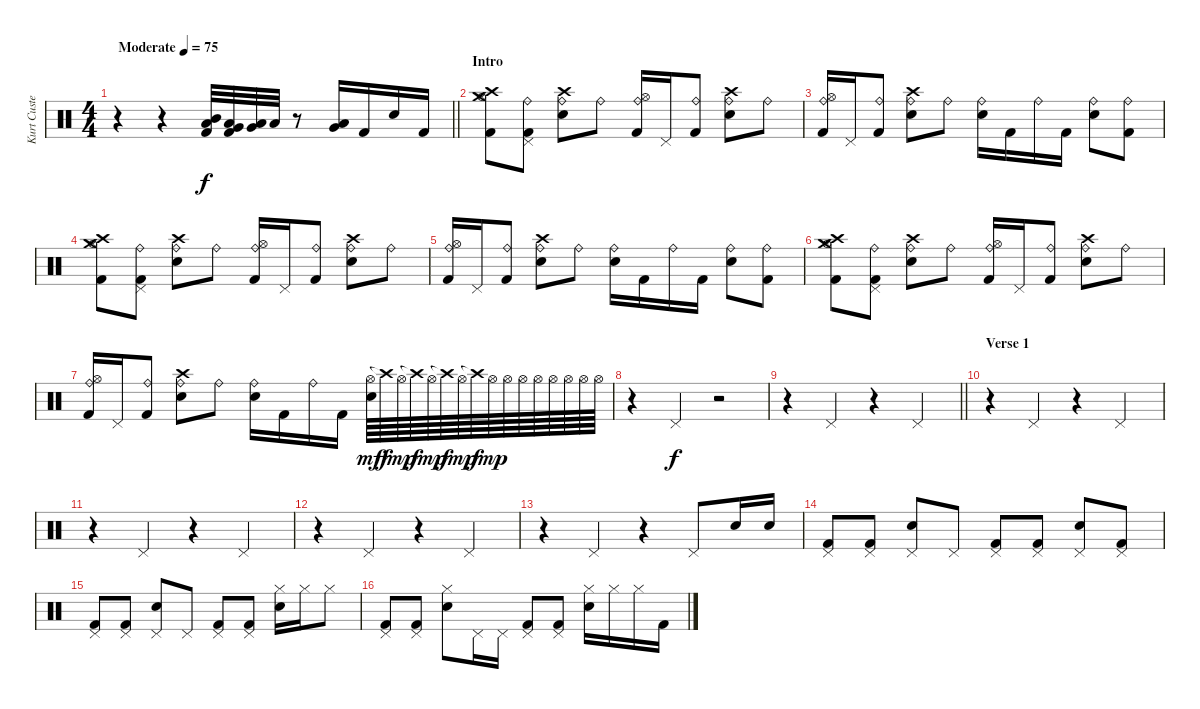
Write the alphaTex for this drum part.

\track ("Kurt Custer - Drums and Percussion" "Kurt Custe") {instrument percussion}
\staff
\articulation defaults
\ts (4 4)
\tempo (75 "Moderate")
\clef neutral
\barLineRight lightlight
\ks c
r.4{dy f} r.4 ("Low Tom (hit)" "Mid Tom (hit)" "Kick (hit) 2").32 ("Very Low Tom (hit)" "Low Tom (hit)" "Kick (hit) 2").32 ("Low Floor Tom (hit)" "Very Low Tom (hit)").32 "Low Floor Tom (hit)".32 r.8 ("Very Low Tom (hit)" "Low Floor Tom (hit)").16 "Kick (hit) 2".16 "Snare (hit) 2".16 "Kick (hit) 2".16 |
\section ("" "Intro")
("Crash medium (hit)" "Crash high (hit)" "Hi-Hat (open)" "Kick (hit) 2").8 ("Ride (bell)" "Pedal Hi-Hat (hit)" "Kick (hit) 2").8 ("Ride (bell)" "Crash high (hit)" "Snare (hit) 2").8 "Ride (bell)".8 ("Ride (bell)" "Hi-Hat (open)" "Kick (hit) 2").16 "Pedal Hi-Hat (hit)".16 ("Ride (bell)" "Kick (hit) 2").8 ("Ride (bell)" "Crash high (hit)" "Snare (hit) 2").8 "Ride (bell)".8 |
("Ride (bell)" "Hi-Hat (open)" "Kick (hit) 2").16 "Pedal Hi-Hat (hit)".16 ("Ride (bell)" "Kick (hit) 2").8 ("Ride (bell)" "Crash high (hit)" "Snare (hit) 2").8 "Ride (bell)".8 ("Ride (bell)" "Snare (hit) 2").16 "Kick (hit) 2".16 "Ride (bell)".16 "Kick (hit) 2".16 ("Ride (bell)" "Snare (hit) 2").8 ("Ride (bell)" "Kick (hit) 2").8 |
("Crash medium (hit)" "Crash high (hit)" "Hi-Hat (open)" "Kick (hit) 2").8 ("Ride (bell)" "Pedal Hi-Hat (hit)" "Kick (hit) 2").8 ("Ride (bell)" "Crash high (hit)" "Snare (hit) 2").8 "Ride (bell)".8 ("Ride (bell)" "Hi-Hat (open)" "Kick (hit) 2").16 "Pedal Hi-Hat (hit)".16 ("Ride (bell)" "Kick (hit) 2").8 ("Ride (bell)" "Crash high (hit)" "Snare (hit) 2").8 "Ride (bell)".8 |
("Ride (bell)" "Hi-Hat (open)" "Kick (hit) 2").16 "Pedal Hi-Hat (hit)".16 ("Ride (bell)" "Kick (hit) 2").8 ("Ride (bell)" "Crash high (hit)" "Snare (hit) 2").8 "Ride (bell)".8 ("Ride (bell)" "Snare (hit) 2").16 "Kick (hit) 2".16 "Ride (bell)".16 "Kick (hit) 2".16 ("Ride (bell)" "Snare (hit) 2").8 ("Ride (bell)" "Kick (hit) 2").8 |
("Crash medium (hit)" "Crash high (hit)" "Hi-Hat (open)" "Kick (hit) 2").8 ("Ride (bell)" "Pedal Hi-Hat (hit)" "Kick (hit) 2").8 ("Ride (bell)" "Crash high (hit)" "Snare (hit) 2").8 "Ride (bell)".8 ("Ride (bell)" "Hi-Hat (open)" "Kick (hit) 2").16 "Pedal Hi-Hat (hit)".16 ("Ride (bell)" "Kick (hit) 2").8 ("Ride (bell)" "Crash high (hit)" "Snare (hit) 2").8 "Ride (bell)".8 |
("Ride (bell)" "Hi-Hat (open)" "Kick (hit) 2").16 "Pedal Hi-Hat (hit)".16 ("Ride (bell)" "Kick (hit) 2").8 ("Ride (bell)" "Crash high (hit)" "Snare (hit) 2").8 "Ride (bell)".8 ("Ride (bell)" "Snare (hit) 2").16 "Kick (hit) 2".16 "Ride (bell)".16 "Kick (hit) 2".16 ("Hi-Hat (open)" "Snare (hit) 2").64{dy mf} "Crash high (hit)"{t}.64{dy f} "Hi-Hat (open)".64{dy mp} "Crash high (hit)"{t}.64{dy f} "Hi-Hat (open)".64{dy mp} "Crash high (hit)"{t}.64{dy f} "Hi-Hat (open)".64{dy mp} "Crash high (hit)"{t}.64{dy f} "Hi-Hat (open)".64{dy mp} "Hi-Hat (open)".64 "Hi-Hat (open)".64 "Hi-Hat (open)".64 "Hi-Hat (open)".64 "Hi-Hat (open)".64 "Hi-Hat (open)".64 "Hi-Hat (open)".64 |
r.4 "Pedal Hi-Hat (hit)".4{dy f} r.2 |
\barLineRight lightlight
r.4 "Pedal Hi-Hat (hit)".4 r.4 "Pedal Hi-Hat (hit)".4 |
\section ("" "Verse 1")
r.4 "Pedal Hi-Hat (hit)".4 r.4 "Pedal Hi-Hat (hit)".4 |
r.4 "Pedal Hi-Hat (hit)".4 r.4 "Pedal Hi-Hat (hit)".4 |
r.4 "Pedal Hi-Hat (hit)".4 r.4 "Pedal Hi-Hat (hit)".4 |
r.4 "Pedal Hi-Hat (hit)".4 r.4 "Pedal Hi-Hat (hit)".8 "Snare (hit) 2".16 "Snare (hit) 2".16 |
("Pedal Hi-Hat (hit)" "Kick (hit) 2").8 ("Pedal Hi-Hat (hit)" "Kick (hit) 2").8 ("Snare (hit) 2" "Pedal Hi-Hat (hit)").8 "Pedal Hi-Hat (hit)".8 ("Pedal Hi-Hat (hit)" "Kick (hit) 2").8 ("Pedal Hi-Hat (hit)" "Kick (hit) 2").8 ("Snare (hit) 2" "Pedal Hi-Hat (hit)").8 ("Pedal Hi-Hat (hit)" "Kick (hit) 2").8 |
("Pedal Hi-Hat (hit)" "Kick (hit) 2").8 ("Pedal Hi-Hat (hit)" "Kick (hit) 2").8 ("Snare (hit) 2" "Pedal Hi-Hat (hit)").8 "Pedal Hi-Hat (hit)".8 ("Pedal Hi-Hat (hit)" "Kick (hit) 2").8 ("Pedal Hi-Hat (hit)" "Kick (hit) 2").8 ("Snare (hit) 2" "Hi-Hat (closed)").16 "Hi-Hat (closed)".16 "Hi-Hat (closed)".8 |
("Pedal Hi-Hat (hit)" "Kick (hit) 2").8 ("Pedal Hi-Hat (hit)" "Kick (hit) 2").8 ("Snare (hit) 2" "Hi-Hat (closed)").8 "Pedal Hi-Hat (hit)".16 "Pedal Hi-Hat (hit)".16 ("Pedal Hi-Hat (hit)" "Kick (hit) 2").8 ("Pedal Hi-Hat (hit)" "Kick (hit) 2").8 ("Snare (hit) 2" "Hi-Hat (closed)").16 "Hi-Hat (closed)".16 "Hi-Hat (closed)".16 "Kick (hit) 2".16
